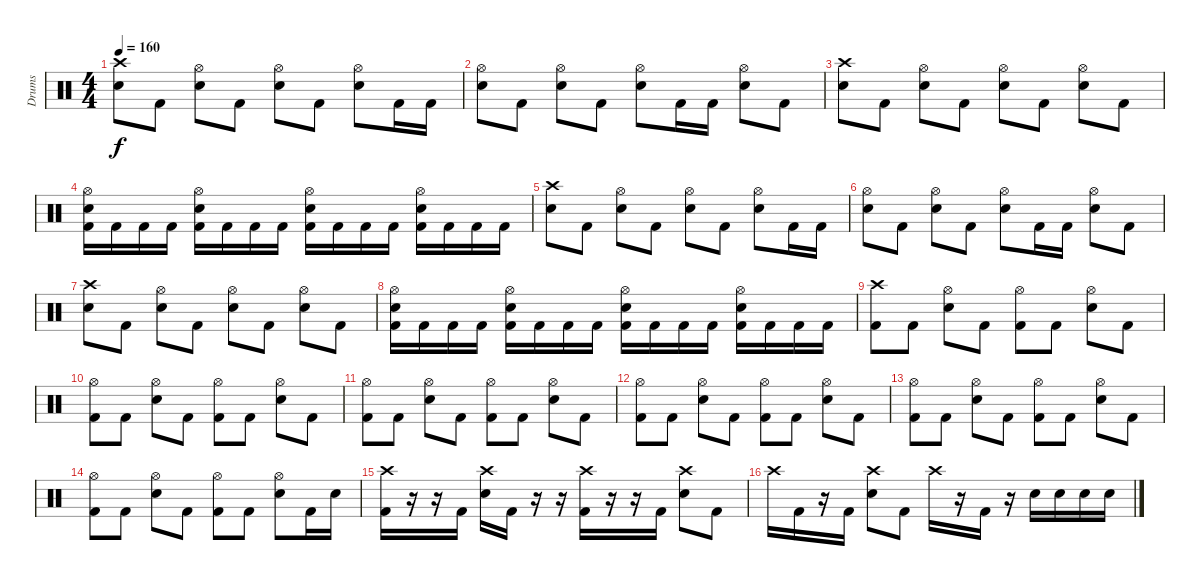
\track ("Drums" "Drums") {instrument percussion}
\staff {score}
\articulation defaults
\ts (4 4)
\tempo 160
\clef neutral
\ks c
("Electric Snare (hit)" "Crash high (hit)").8{dy f} "Kick (hit) 2".8 ("Electric Snare (hit)" "Hi-Hat (open)").8 "Kick (hit) 2".8 ("Electric Snare (hit)" "Hi-Hat (open)").8 "Kick (hit) 2".8 ("Electric Snare (hit)" "Hi-Hat (open)").8 "Kick (hit) 2".16 "Kick (hit) 2".16 |
("Electric Snare (hit)" "Hi-Hat (open)").8 "Kick (hit) 2".8 ("Electric Snare (hit)" "Hi-Hat (open)").8 "Kick (hit) 2".8 ("Electric Snare (hit)" "Hi-Hat (open)").8 "Kick (hit) 2".16 "Kick (hit) 2".16 ("Electric Snare (hit)" "Hi-Hat (open)").8 "Kick (hit) 2".8 |
("Electric Snare (hit)" "Crash high (hit)").8 "Kick (hit) 2".8 ("Electric Snare (hit)" "Hi-Hat (open)").8 "Kick (hit) 2".8 ("Electric Snare (hit)" "Hi-Hat (open)").8 "Kick (hit) 2".8 ("Electric Snare (hit)" "Hi-Hat (open)").8 "Kick (hit) 2".8 |
("Kick (hit) 2" "Electric Snare (hit)" "Hi-Hat (open)").16 "Kick (hit) 2".16 "Kick (hit) 2".16 "Kick (hit) 2".16 ("Kick (hit) 2" "Electric Snare (hit)" "Hi-Hat (open)").16 "Kick (hit) 2".16 "Kick (hit) 2".16 "Kick (hit) 2".16 ("Kick (hit) 2" "Electric Snare (hit)" "Hi-Hat (open)").16 "Kick (hit) 2".16 "Kick (hit) 2".16 "Kick (hit) 2".16 ("Kick (hit) 2" "Electric Snare (hit)" "Hi-Hat (open)").16 "Kick (hit) 2".16 "Kick (hit) 2".16 "Kick (hit) 2".16 |
("Electric Snare (hit)" "Crash high (hit)").8 "Kick (hit) 2".8 ("Electric Snare (hit)" "Hi-Hat (open)").8 "Kick (hit) 2".8 ("Electric Snare (hit)" "Hi-Hat (open)").8 "Kick (hit) 2".8 ("Electric Snare (hit)" "Hi-Hat (open)").8 "Kick (hit) 2".16 "Kick (hit) 2".16 |
("Electric Snare (hit)" "Hi-Hat (open)").8 "Kick (hit) 2".8 ("Electric Snare (hit)" "Hi-Hat (open)").8 "Kick (hit) 2".8 ("Electric Snare (hit)" "Hi-Hat (open)").8 "Kick (hit) 2".16 "Kick (hit) 2".16 ("Electric Snare (hit)" "Hi-Hat (open)").8 "Kick (hit) 2".8 |
("Electric Snare (hit)" "Crash high (hit)").8 "Kick (hit) 2".8 ("Electric Snare (hit)" "Hi-Hat (open)").8 "Kick (hit) 2".8 ("Electric Snare (hit)" "Hi-Hat (open)").8 "Kick (hit) 2".8 ("Electric Snare (hit)" "Hi-Hat (open)").8 "Kick (hit) 2".8 |
("Kick (hit) 2" "Electric Snare (hit)" "Hi-Hat (open)").16 "Kick (hit) 2".16 "Kick (hit) 2".16 "Kick (hit) 2".16 ("Kick (hit) 2" "Electric Snare (hit)" "Hi-Hat (open)").16 "Kick (hit) 2".16 "Kick (hit) 2".16 "Kick (hit) 2".16 ("Kick (hit) 2" "Electric Snare (hit)" "Hi-Hat (open)").16 "Kick (hit) 2".16 "Kick (hit) 2".16 "Kick (hit) 2".16 ("Kick (hit) 2" "Electric Snare (hit)" "Hi-Hat (open)").16 "Kick (hit) 2".16 "Kick (hit) 2".16 "Kick (hit) 2".16 |
("Kick (hit) 2" "Crash high (hit)").8 "Kick (hit) 2".8 ("Electric Snare (hit)" "Hi-Hat (open)").8 "Kick (hit) 2".8 ("Kick (hit) 2" "Hi-Hat (open)").8 "Kick (hit) 2".8 ("Electric Snare (hit)" "Hi-Hat (open)").8 "Kick (hit) 2".8 |
("Kick (hit) 2" "Hi-Hat (open)").8 "Kick (hit) 2".8 ("Electric Snare (hit)" "Hi-Hat (open)").8 "Kick (hit) 2".8 ("Kick (hit) 2" "Hi-Hat (open)").8 "Kick (hit) 2".8 ("Electric Snare (hit)" "Hi-Hat (open)").8 "Kick (hit) 2".8 |
("Kick (hit) 2" "Hi-Hat (open)").8 "Kick (hit) 2".8 ("Electric Snare (hit)" "Hi-Hat (open)").8 "Kick (hit) 2".8 ("Kick (hit) 2" "Hi-Hat (open)").8 "Kick (hit) 2".8 ("Electric Snare (hit)" "Hi-Hat (open)").8 "Kick (hit) 2".8 |
("Kick (hit) 2" "Hi-Hat (open)").8 "Kick (hit) 2".8 ("Electric Snare (hit)" "Hi-Hat (open)").8 "Kick (hit) 2".8 ("Kick (hit) 2" "Hi-Hat (open)").8 "Kick (hit) 2".8 ("Electric Snare (hit)" "Hi-Hat (open)").8 "Kick (hit) 2".8 |
("Kick (hit) 2" "Hi-Hat (open)").8 "Kick (hit) 2".8 ("Electric Snare (hit)" "Hi-Hat (open)").8 "Kick (hit) 2".8 ("Kick (hit) 2" "Hi-Hat (open)").8 "Kick (hit) 2".8 ("Electric Snare (hit)" "Hi-Hat (open)").8 "Kick (hit) 2".8 |
("Kick (hit) 2" "Hi-Hat (open)").8 "Kick (hit) 2".8 ("Electric Snare (hit)" "Hi-Hat (open)").8 "Kick (hit) 2".8 ("Kick (hit) 2" "Hi-Hat (open)").8 "Kick (hit) 2".8 ("Electric Snare (hit)" "Hi-Hat (open)").8 "Kick (hit) 2".16 "Electric Snare (hit)".16 |
("Kick (hit) 2" "Crash high (hit)").16 r.16 r.16 "Kick (hit) 2".16 ("Electric Snare (hit)" "Crash high (hit)").16 "Kick (hit) 2".16 r.16 r.16 ("Kick (hit) 2" "Crash high (hit)").16 r.16 r.16 "Kick (hit) 2".16 ("Electric Snare (hit)" "Crash high (hit)").8 "Kick (hit) 2".8 |
"Crash high (hit)".16 "Kick (hit) 2".16 r.16 "Kick (hit) 2".16 ("Electric Snare (hit)" "Crash high (hit)").8 "Kick (hit) 2".8 "Crash high (hit)".16 r.16 "Kick (hit) 2".16 r.16 "Electric Snare (hit)".16 "Electric Snare (hit)".16 "Electric Snare (hit)".16 "Electric Snare (hit)".16
